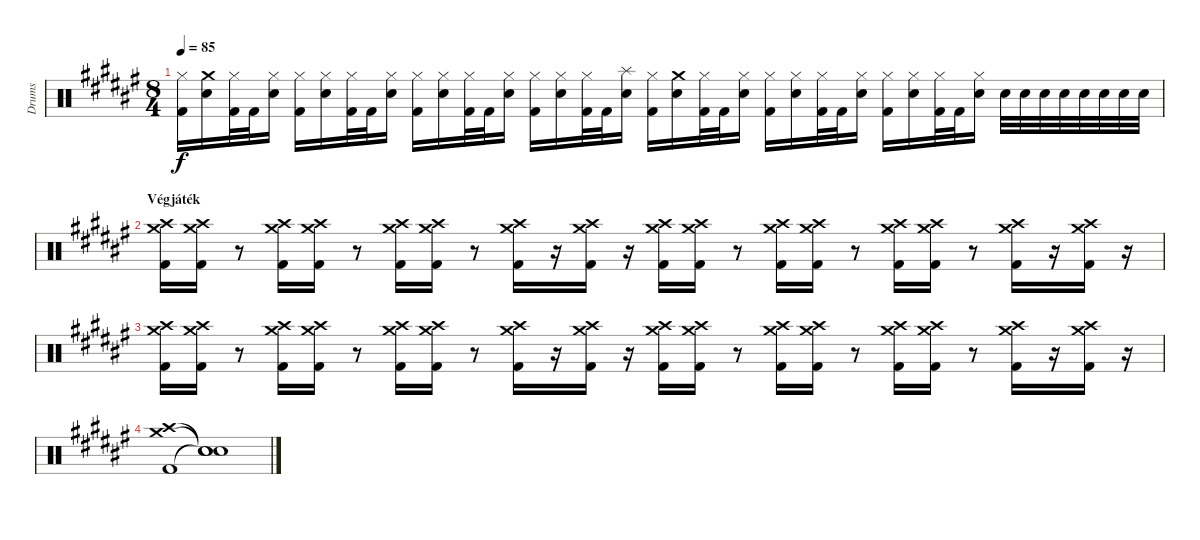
\track ("Drums" "Drums") {instrument percussion}
\staff {score}
\articulation defaults
\ts (8 4)
\tempo 85
\clef neutral
\ks d#minor
("Hi-Hat (closed)" "Kick (hit) 2").16{dy f} ("Crash medium (hit)" "Snare (hit) 2").16 ("Hi-Hat (closed)" "Kick (hit) 2").32 "Kick (hit) 2".32 ("Hi-Hat (closed)" "Snare (hit) 2").16 ("Hi-Hat (closed)" "Kick (hit) 2").16 ("Hi-Hat (closed)" "Snare (hit) 2").16 ("Hi-Hat (closed)" "Kick (hit) 2").32 "Kick (hit) 2".32 ("Hi-Hat (closed)" "Snare (hit) 2").16 ("Hi-Hat (closed)" "Kick (hit) 2").16 ("Hi-Hat (closed)" "Snare (hit) 2").16 ("Hi-Hat (closed)" "Kick (hit) 2").32 "Kick (hit) 2".32 ("Hi-Hat (closed)" "Snare (hit) 2").16 ("Hi-Hat (closed)" "Kick (hit) 2").16 ("Hi-Hat (closed)" "Snare (hit) 2").16 ("Hi-Hat (closed)" "Kick (hit) 2").32 "Kick (hit) 2".32 ("Splash (hit)" "Snare (hit) 2").16 ("Hi-Hat (closed)" "Kick (hit) 2").16 ("Crash medium (hit)" "Snare (hit) 2").16 ("Hi-Hat (closed)" "Kick (hit) 2").32 "Kick (hit) 2".32 ("Hi-Hat (closed)" "Snare (hit) 2").16 ("Hi-Hat (closed)" "Kick (hit) 2").16 ("Hi-Hat (closed)" "Snare (hit) 2").16 ("Hi-Hat (closed)" "Kick (hit) 2").32 "Kick (hit) 2".32 ("Hi-Hat (closed)" "Snare (hit) 2").16 ("Hi-Hat (closed)" "Kick (hit) 2").16 ("Hi-Hat (closed)" "Snare (hit) 2").16 ("Hi-Hat (closed)" "Kick (hit) 2").32 "Kick (hit) 2".32 ("Hi-Hat (closed)" "Snare (hit) 2").16 "Snare (hit) 2".32 "Snare (hit) 2".32 "Snare (hit) 2".32 "Snare (hit) 2".32 "Snare (hit) 2".32 "Snare (hit) 2".32 "Snare (hit) 2".32 "Snare (hit) 2".32 |
\section ("" "Végjáték")
("Crash medium (hit)" "Crash high (hit)" "Kick (hit) 2").16 ("Crash medium (hit)" "Crash high (hit)" "Kick (hit) 2").16 r.8 ("Crash medium (hit)" "Crash high (hit)" "Kick (hit) 2").16 ("Crash medium (hit)" "Crash high (hit)" "Kick (hit) 2").16 r.8 ("Crash medium (hit)" "Crash high (hit)" "Kick (hit) 2").16 ("Crash medium (hit)" "Crash high (hit)" "Kick (hit) 2").16 r.8 ("Crash medium (hit)" "Crash high (hit)" "Kick (hit) 2").16 r.16 ("Crash medium (hit)" "Crash high (hit)" "Kick (hit) 2").16 r.16 ("Crash medium (hit)" "Crash high (hit)" "Kick (hit) 2").16 ("Crash medium (hit)" "Crash high (hit)" "Kick (hit) 2").16 r.8 ("Crash medium (hit)" "Crash high (hit)" "Kick (hit) 2").16 ("Crash medium (hit)" "Crash high (hit)" "Kick (hit) 2").16 r.8 ("Crash medium (hit)" "Crash high (hit)" "Kick (hit) 2").16 ("Crash medium (hit)" "Crash high (hit)" "Kick (hit) 2").16 r.8 ("Crash medium (hit)" "Crash high (hit)" "Kick (hit) 2").16 r.16 ("Crash medium (hit)" "Crash high (hit)" "Kick (hit) 2").16 r.16 |
("Crash medium (hit)" "Crash high (hit)" "Kick (hit) 2").16 ("Crash medium (hit)" "Crash high (hit)" "Kick (hit) 2").16 r.8 ("Crash medium (hit)" "Crash high (hit)" "Kick (hit) 2").16 ("Crash medium (hit)" "Crash high (hit)" "Kick (hit) 2").16 r.8 ("Crash medium (hit)" "Crash high (hit)" "Kick (hit) 2").16 ("Crash medium (hit)" "Crash high (hit)" "Kick (hit) 2").16 r.8 ("Crash medium (hit)" "Crash high (hit)" "Kick (hit) 2").16 r.16 ("Crash medium (hit)" "Crash high (hit)" "Kick (hit) 2").16 r.16 ("Crash medium (hit)" "Crash high (hit)" "Kick (hit) 2").16 ("Crash medium (hit)" "Crash high (hit)" "Kick (hit) 2").16 r.8 ("Crash medium (hit)" "Crash high (hit)" "Kick (hit) 2").16 ("Crash medium (hit)" "Crash high (hit)" "Kick (hit) 2").16 r.8 ("Crash medium (hit)" "Crash high (hit)" "Kick (hit) 2").16 ("Crash medium (hit)" "Crash high (hit)" "Kick (hit) 2").16 r.8 ("Crash medium (hit)" "Crash high (hit)" "Kick (hit) 2").16 r.16 ("Crash medium (hit)" "Crash high (hit)" "Kick (hit) 2").16 r.16 |
("Crash medium (hit)" "Crash high (hit)" "Kick (hit) 2").1 ("Snare (hit)"{t} "Snare (hit)"{t} "Snare (hit)"{t}).1
